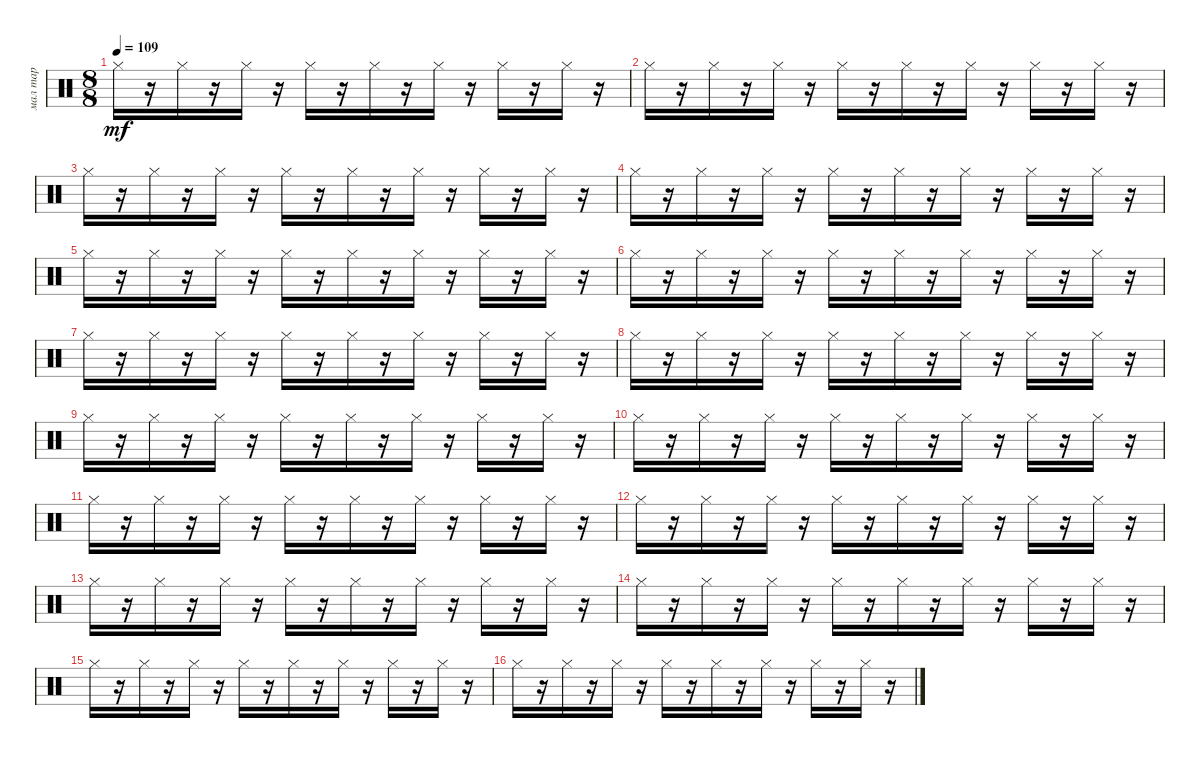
\track ("мал тар" "мал тар") {instrument percussion}
\staff {score}
\articulation defaults
\ts (8 8)
\tempo 109
\clef neutral
\ks c "Hi-Hat (closed)".16{dy mf}
r.16 "Hi-Hat (closed)".16 r.16 "Hi-Hat (closed)".16 r.16 "Hi-Hat (closed)".16 r.16 "Hi-Hat (closed)".16 r.16 "Hi-Hat (closed)".16 r.16 "Hi-Hat (closed)".16 r.16 "Hi-Hat (closed)".16 r.16 |
"Hi-Hat (closed)".16 r.16 "Hi-Hat (closed)".16 r.16 "Hi-Hat (closed)".16 r.16 "Hi-Hat (closed)".16 r.16 "Hi-Hat (closed)".16 r.16 "Hi-Hat (closed)".16 r.16 "Hi-Hat (closed)".16 r.16 "Hi-Hat (closed)".16 r.16 |
"Hi-Hat (closed)".16 r.16 "Hi-Hat (closed)".16 r.16 "Hi-Hat (closed)".16 r.16 "Hi-Hat (closed)".16 r.16 "Hi-Hat (closed)".16 r.16 "Hi-Hat (closed)".16 r.16 "Hi-Hat (closed)".16 r.16 "Hi-Hat (closed)".16 r.16 |
"Hi-Hat (closed)".16 r.16 "Hi-Hat (closed)".16 r.16 "Hi-Hat (closed)".16 r.16 "Hi-Hat (closed)".16 r.16 "Hi-Hat (closed)".16 r.16 "Hi-Hat (closed)".16 r.16 "Hi-Hat (closed)".16 r.16 "Hi-Hat (closed)".16 r.16 |
"Hi-Hat (closed)".16 r.16 "Hi-Hat (closed)".16 r.16 "Hi-Hat (closed)".16 r.16 "Hi-Hat (closed)".16 r.16 "Hi-Hat (closed)".16 r.16 "Hi-Hat (closed)".16 r.16 "Hi-Hat (closed)".16 r.16 "Hi-Hat (closed)".16 r.16 |
"Hi-Hat (closed)".16 r.16 "Hi-Hat (closed)".16 r.16 "Hi-Hat (closed)".16 r.16 "Hi-Hat (closed)".16 r.16 "Hi-Hat (closed)".16 r.16 "Hi-Hat (closed)".16 r.16 "Hi-Hat (closed)".16 r.16 "Hi-Hat (closed)".16 r.16 |
"Hi-Hat (closed)".16 r.16 "Hi-Hat (closed)".16 r.16 "Hi-Hat (closed)".16 r.16 "Hi-Hat (closed)".16 r.16 "Hi-Hat (closed)".16 r.16 "Hi-Hat (closed)".16 r.16 "Hi-Hat (closed)".16 r.16 "Hi-Hat (closed)".16 r.16 |
"Hi-Hat (closed)".16 r.16 "Hi-Hat (closed)".16 r.16 "Hi-Hat (closed)".16 r.16 "Hi-Hat (closed)".16 r.16 "Hi-Hat (closed)".16 r.16 "Hi-Hat (closed)".16 r.16 "Hi-Hat (closed)".16 r.16 "Hi-Hat (closed)".16 r.16 |
"Hi-Hat (closed)".16 r.16 "Hi-Hat (closed)".16 r.16 "Hi-Hat (closed)".16 r.16 "Hi-Hat (closed)".16 r.16 "Hi-Hat (closed)".16 r.16 "Hi-Hat (closed)".16 r.16 "Hi-Hat (closed)".16 r.16 "Hi-Hat (closed)".16 r.16 |
"Hi-Hat (closed)".16 r.16 "Hi-Hat (closed)".16 r.16 "Hi-Hat (closed)".16 r.16 "Hi-Hat (closed)".16 r.16 "Hi-Hat (closed)".16 r.16 "Hi-Hat (closed)".16 r.16 "Hi-Hat (closed)".16 r.16 "Hi-Hat (closed)".16 r.16 |
"Hi-Hat (closed)".16 r.16 "Hi-Hat (closed)".16 r.16 "Hi-Hat (closed)".16 r.16 "Hi-Hat (closed)".16 r.16 "Hi-Hat (closed)".16 r.16 "Hi-Hat (closed)".16 r.16 "Hi-Hat (closed)".16 r.16 "Hi-Hat (closed)".16 r.16 |
"Hi-Hat (closed)".16 r.16 "Hi-Hat (closed)".16 r.16 "Hi-Hat (closed)".16 r.16 "Hi-Hat (closed)".16 r.16 "Hi-Hat (closed)".16 r.16 "Hi-Hat (closed)".16 r.16 "Hi-Hat (closed)".16 r.16 "Hi-Hat (closed)".16 r.16 |
"Hi-Hat (closed)".16 r.16 "Hi-Hat (closed)".16 r.16 "Hi-Hat (closed)".16 r.16 "Hi-Hat (closed)".16 r.16 "Hi-Hat (closed)".16 r.16 "Hi-Hat (closed)".16 r.16 "Hi-Hat (closed)".16 r.16 "Hi-Hat (closed)".16 r.16 |
"Hi-Hat (closed)".16 r.16 "Hi-Hat (closed)".16 r.16 "Hi-Hat (closed)".16 r.16 "Hi-Hat (closed)".16 r.16 "Hi-Hat (closed)".16 r.16 "Hi-Hat (closed)".16 r.16 "Hi-Hat (closed)".16 r.16 "Hi-Hat (closed)".16 r.16 |
"Hi-Hat (closed)".16 r.16 "Hi-Hat (closed)".16 r.16 "Hi-Hat (closed)".16 r.16 "Hi-Hat (closed)".16 r.16 "Hi-Hat (closed)".16 r.16 "Hi-Hat (closed)".16 r.16 "Hi-Hat (closed)".16 r.16 "Hi-Hat (closed)".16 r.16 |
"Hi-Hat (closed)".16 r.16 "Hi-Hat (closed)".16 r.16 "Hi-Hat (closed)".16 r.16 "Hi-Hat (closed)".16 r.16 "Hi-Hat (closed)".16 r.16 "Hi-Hat (closed)".16 r.16 "Hi-Hat (closed)".16 r.16 "Hi-Hat (closed)".16 r.16
